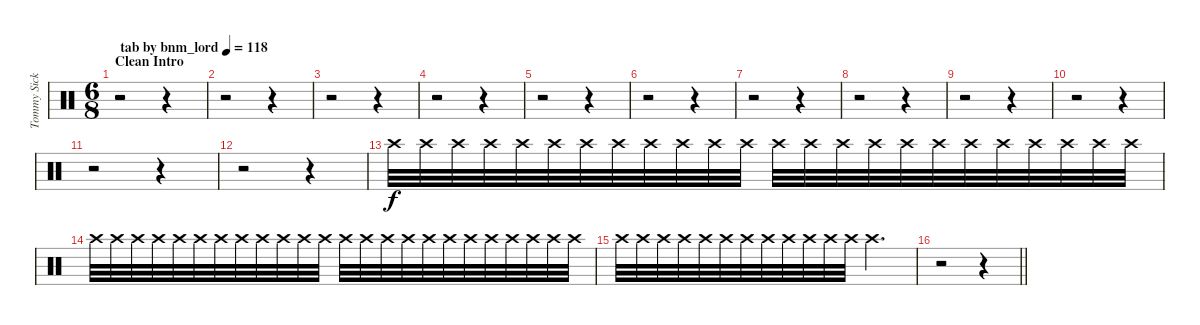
\track ("Tommy Sickles" "Tommy Sick") {instrument percussion}
\staff {score}
\articulation defaults
\ts (6 8)
\section ("" "Clean Intro")
\tempo (118 "tab by bnm_lord")
\clef neutral
\ks c
r.2{dy f} r.4 |
r.2 r.4 |
r.2 r.4 |
r.2 r.4 |
r.2 r.4 |
r.2 r.4 |
r.2 r.4 |
r.2 r.4 |
r.2 r.4 |
r.2 r.4 |
r.2 r.4 |
r.2{volume 0} r.4 |
"Crash high (hit)".32{volume 8} "Crash high (hit)".32 "Crash high (hit)".32 "Crash high (hit)".32 "Crash high (hit)".32 "Crash high (hit)".32 "Crash high (hit)".32 "Crash high (hit)".32 "Crash high (hit)".32 "Crash high (hit)".32 "Crash high (hit)".32 "Crash high (hit)".32 "Crash high (hit)".32 "Crash high (hit)".32 "Crash high (hit)".32 "Crash high (hit)".32 "Crash high (hit)".32 "Crash high (hit)".32 "Crash high (hit)".32 "Crash high (hit)".32 "Crash high (hit)".32 "Crash high (hit)".32 "Crash high (hit)".32 "Crash high (hit)".32 |
"Crash high (hit)".32 "Crash high (hit)".32 "Crash high (hit)".32 "Crash high (hit)".32 "Crash high (hit)".32 "Crash high (hit)".32 "Crash high (hit)".32 "Crash high (hit)".32 "Crash high (hit)".32 "Crash high (hit)".32 "Crash high (hit)".32 "Crash high (hit)".32 "Crash high (hit)".32 "Crash high (hit)".32 "Crash high (hit)".32 "Crash high (hit)".32 "Crash high (hit)".32 "Crash high (hit)".32 "Crash high (hit)".32 "Crash high (hit)".32 "Crash high (hit)".32 "Crash high (hit)".32 "Crash high (hit)".32 "Crash high (hit)".32 |
"Crash high (hit)".32 "Crash high (hit)".32 "Crash high (hit)".32 "Crash high (hit)".32 "Crash high (hit)".32 "Crash high (hit)".32 "Crash high (hit)".32 "Crash high (hit)".32 "Crash high (hit)".32 "Crash high (hit)".32 "Crash high (hit)".32 "Crash high (hit)".32 "Crash high (hit)".4{d} |
\barLineRight lightlight
r.2 r.4
